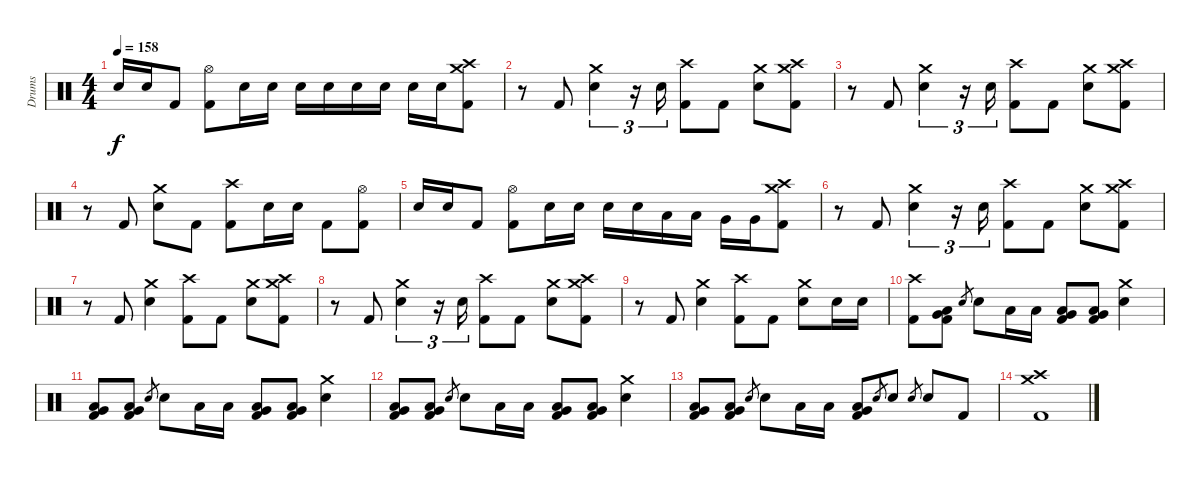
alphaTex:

\track ("Drums" "Drums") {instrument percussion}
\staff {score}
\articulation defaults
\ts (4 4)
\tempo 158
\clef neutral
\ks c "Snare (hit) 2".16{dy f} "Snare (hit) 2".16 "Kick (hit) 2".8
("Hi-Hat (open)" "Kick (hit) 2").8 "Snare (hit) 2".16 "Snare (hit) 2".16 "Snare (hit) 2".16 "Snare (hit) 2".16 "Snare (hit) 2".16 "Snare (hit) 2".16 "Snare (hit) 2".16 "Snare (hit) 2".16 ("Crash high (hit)" "Crash medium (hit)" "Kick (hit) 2").8 |
r.8 "Kick (hit) 2".8 ("Crash medium (hit)" "Snare (hit) 2").4{tu (3 2)} r.16{tu (3 2)} "Snare (hit) 2".16{tu (3 2)} ("Crash high (hit)" "Kick (hit) 2").8 "Kick (hit) 2".8 ("Crash medium (hit)" "Snare (hit) 2").8 ("Crash high (hit)" "Crash medium (hit)" "Kick (hit) 2").8 |
r.8 "Kick (hit) 2".8 ("Crash medium (hit)" "Snare (hit) 2").4{tu (3 2)} r.16{tu (3 2)} "Snare (hit) 2".16{tu (3 2)} ("Crash high (hit)" "Kick (hit) 2").8 "Kick (hit) 2".8 ("Crash medium (hit)" "Snare (hit) 2").8 ("Crash high (hit)" "Crash medium (hit)" "Kick (hit) 2").8 |
r.8 "Kick (hit) 2".8 ("Crash medium (hit)" "Snare (hit) 2").8 "Kick (hit) 2".8 ("Crash high (hit)" "Kick (hit) 2").8 "Snare (hit) 2".16 "Snare (hit) 2".16 "Kick (hit) 2".8 ("Hi-Hat (open)" "Kick (hit) 2").8 |
"Snare (hit) 2".16 "Snare (hit) 2".16 "Kick (hit) 2".8 ("Hi-Hat (open)" "Kick (hit) 2").8 "Snare (hit) 2".16 "Snare (hit) 2".16 "Snare (hit) 2".16 "Snare (hit) 2".16 "Low Tom (hit)".16 "Low Tom (hit)".16 "Very Low Tom (hit)".16 "Very Low Tom (hit)".16 ("Crash high (hit)" "Crash medium (hit)" "Kick (hit) 2").8 |
r.8 "Kick (hit) 2".8 ("Crash medium (hit)" "Snare (hit) 2").4{tu (3 2)} r.16{tu (3 2)} "Snare (hit) 2".16{tu (3 2)} ("Crash high (hit)" "Kick (hit) 2").8 "Kick (hit) 2".8 ("Crash medium (hit)" "Snare (hit) 2").8 ("Crash high (hit)" "Crash medium (hit)" "Kick (hit) 2").8 |
r.8 "Kick (hit) 2".8 ("Crash medium (hit)" "Snare (hit) 2").4 ("Crash high (hit)" "Kick (hit) 2").8 "Kick (hit) 2".8 ("Crash medium (hit)" "Snare (hit) 2").8 ("Crash high (hit)" "Crash medium (hit)" "Kick (hit) 2").8 |
r.8 "Kick (hit) 2".8 ("Crash medium (hit)" "Snare (hit) 2").4{tu (3 2)} r.16{tu (3 2)} "Snare (hit) 2".16{tu (3 2)} ("Crash high (hit)" "Kick (hit) 2").8 "Kick (hit) 2".8 ("Crash medium (hit)" "Snare (hit) 2").8 ("Crash high (hit)" "Crash medium (hit)" "Kick (hit) 2").8 |
r.8 "Kick (hit) 2".8 ("Crash medium (hit)" "Snare (hit) 2").4 ("Crash high (hit)" "Kick (hit) 2").8 "Kick (hit) 2".8 ("Crash medium (hit)" "Snare (hit) 2").8 "Snare (hit) 2".16 "Snare (hit) 2".16 |
("Crash high (hit)" "Kick (hit) 2").8 ("Low Tom (hit)" "Very Low Tom (hit)" "Kick (hit) 2").8 "Snare (hit) 2".8{gr} "Snare (hit) 2".8 "Low Tom (hit)".16 "Low Tom (hit)".16 ("Low Tom (hit)" "Very Low Tom (hit)" "Kick (hit) 2").8 ("Low Tom (hit)" "Very Low Tom (hit)" "Kick (hit) 2").8 ("Crash medium (hit)" "Snare (hit) 2").4 |
("Low Tom (hit)" "Very Low Tom (hit)" "Kick (hit) 2").8 ("Low Tom (hit)" "Very Low Tom (hit)" "Kick (hit) 2").8 "Snare (hit) 2".8{gr} "Snare (hit) 2".8 "Low Tom (hit)".16 "Low Tom (hit)".16 ("Low Tom (hit)" "Very Low Tom (hit)" "Kick (hit) 2").8 ("Low Tom (hit)" "Very Low Tom (hit)" "Kick (hit) 2").8 ("Crash medium (hit)" "Snare (hit) 2").4 |
("Low Tom (hit)" "Very Low Tom (hit)" "Kick (hit) 2").8 ("Low Tom (hit)" "Very Low Tom (hit)" "Kick (hit) 2").8 "Snare (hit) 2".8{gr} "Snare (hit) 2".8 "Low Tom (hit)".16 "Low Tom (hit)".16 ("Low Tom (hit)" "Very Low Tom (hit)" "Kick (hit) 2").8 ("Low Tom (hit)" "Very Low Tom (hit)" "Kick (hit) 2").8 ("Crash medium (hit)" "Snare (hit) 2").4 |
("Low Tom (hit)" "Very Low Tom (hit)" "Kick (hit) 2").8 ("Low Tom (hit)" "Very Low Tom (hit)" "Kick (hit) 2").8 "Snare (hit) 2".8{gr} "Snare (hit) 2".8 "Low Tom (hit)".16 "Low Tom (hit)".16 ("Low Tom (hit)" "Very Low Tom (hit)" "Kick (hit) 2").8 "Snare (hit) 2".8{gr} "Snare (hit) 2".8 "Snare (hit) 2".8{gr} "Snare (hit) 2".8 "Kick (hit) 2".8 |
("Crash high (hit)" "Crash medium (hit)" "Kick (hit) 2").1
